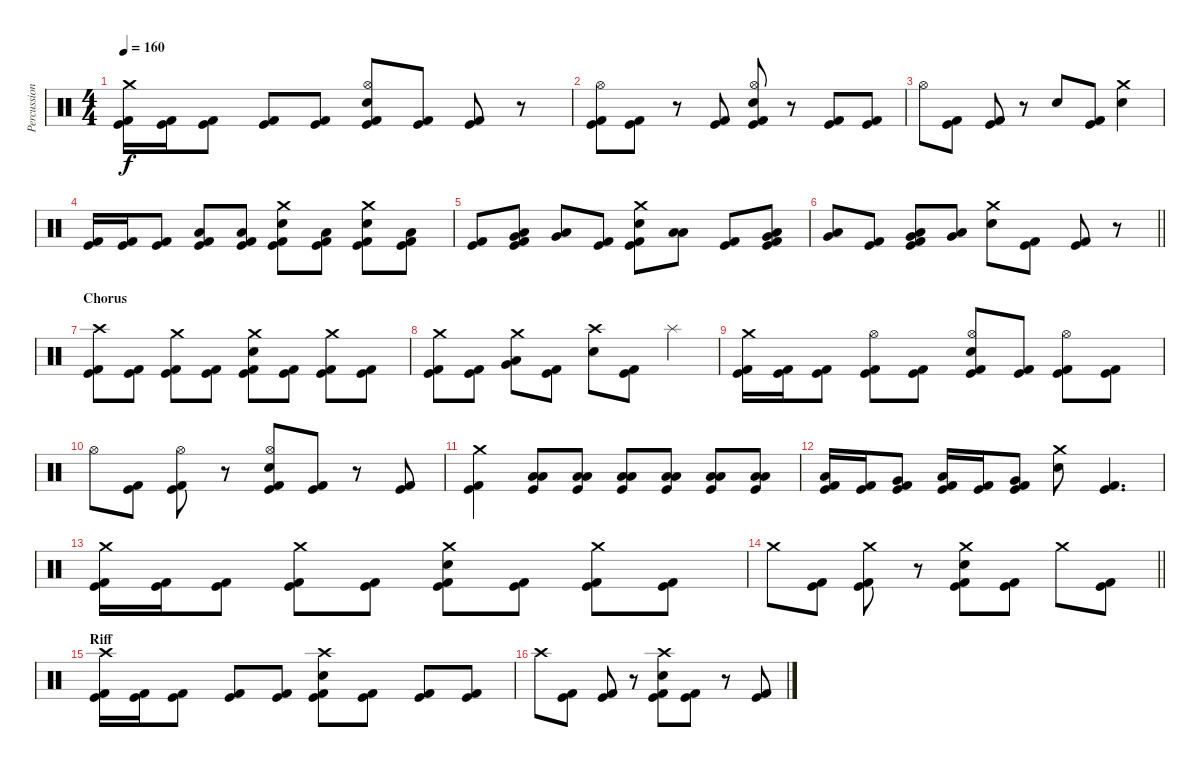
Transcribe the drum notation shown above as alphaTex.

\track ("Percussion" "Percussion") {instrument percussion}
\staff {score}
\articulation defaults
\ts (4 4)
\tempo 160
\clef neutral
\ks c
("Crash medium (hit)" "Kick (hit)" "Kick (hit) 2").16{dy f} ("Kick (hit)" "Kick (hit) 2").16 ("Kick (hit)" "Kick (hit) 2").8 ("Kick (hit)" "Kick (hit) 2").8 ("Kick (hit)" "Kick (hit) 2").8 ("Hi-Hat (open)" "Electric Snare (hit)" "Kick (hit)" "Kick (hit) 2").8 ("Kick (hit)" "Kick (hit) 2").8 ("Kick (hit)" "Kick (hit) 2").8 r.8 |
("Hi-Hat (open)" "Kick (hit)" "Kick (hit) 2").8 ("Kick (hit)" "Kick (hit) 2").8 r.8 ("Kick (hit)" "Kick (hit) 2").8 ("Hi-Hat (open)" "Electric Snare (hit)" "Kick (hit)" "Kick (hit) 2").8 r.8 ("Kick (hit)" "Kick (hit) 2").8 ("Kick (hit)" "Kick (hit) 2").8 |
"Hi-Hat (open)".8 ("Kick (hit)" "Kick (hit) 2").8 ("Kick (hit)" "Kick (hit) 2").8 r.8 "Electric Snare (hit)".8 ("Kick (hit)" "Kick (hit) 2").8 ("Crash medium (hit)" "Electric Snare (hit)").4 |
("Kick (hit)" "Kick (hit) 2").16 ("Kick (hit)" "Kick (hit) 2").16 ("Kick (hit)" "Kick (hit) 2").8 ("Low Floor Tom (hit)" "Kick (hit)" "Kick (hit) 2").8 ("Low Floor Tom (hit)" "Kick (hit)" "Kick (hit) 2").8 ("Crash medium (hit)" "Electric Snare (hit)" "Kick (hit)" "Kick (hit) 2").8 ("Low Floor Tom (hit)" "Kick (hit)" "Kick (hit) 2").8 ("Crash medium (hit)" "Electric Snare (hit)" "Kick (hit)" "Kick (hit) 2").8 ("Low Floor Tom (hit)" "Kick (hit)" "Kick (hit) 2").8 |
("Kick (hit)" "Kick (hit) 2").8 ("Very Low Tom (hit)" "Low Floor Tom (hit)" "Kick (hit)" "Kick (hit) 2").8 ("Very Low Tom (hit)" "Low Floor Tom (hit)").8 ("Kick (hit)" "Kick (hit) 2").8 ("Crash medium (hit)" "Electric Snare (hit)" "Kick (hit)" "Kick (hit) 2").8 ("Low Tom (hit)" "Low Floor Tom (hit)").8 ("Kick (hit)" "Kick (hit) 2").8 ("Very Low Tom (hit)" "Low Floor Tom (hit)" "Kick (hit)" "Kick (hit) 2").8 |
\barLineRight lightlight
("Very Low Tom (hit)" "Low Floor Tom (hit)").8 ("Kick (hit)" "Kick (hit) 2").8 ("Low Tom (hit)" "Very Low Tom (hit)" "Kick (hit)" "Kick (hit) 2").8 ("Low Tom (hit)" "Very Low Tom (hit)").8 ("Crash medium (hit)" "Electric Snare (hit)").8 ("Kick (hit)" "Kick (hit) 2").8 ("Kick (hit)" "Kick (hit) 2").8 r.8 |
\section ("" "Chorus")
("Crash high (hit)" "Kick (hit)" "Kick (hit) 2").8 ("Kick (hit)" "Kick (hit) 2").8 ("Crash medium (hit)" "Kick (hit)" "Kick (hit) 2").8 ("Kick (hit)" "Kick (hit) 2").8 ("Crash medium (hit)" "Electric Snare (hit)" "Kick (hit)" "Kick (hit) 2").8 ("Kick (hit)" "Kick (hit) 2").8 ("Crash medium (hit)" "Kick (hit)" "Kick (hit) 2").8 ("Kick (hit)" "Kick (hit) 2").8 |
("Crash medium (hit)" "Kick (hit)" "Kick (hit) 2").8 ("Kick (hit)" "Kick (hit) 2").8 ("Crash medium (hit)" "Low Tom (hit)" "Very Low Tom (hit)").8 ("Kick (hit)" "Kick (hit) 2").8 ("Crash high (hit)" "Electric Snare (hit)").8 ("Kick (hit)" "Kick (hit) 2").8 "Splash (hit)".4 |
("Crash medium (hit)" "Kick (hit)" "Kick (hit) 2").16 ("Kick (hit)" "Kick (hit) 2").16 ("Kick (hit)" "Kick (hit) 2").8 ("Hi-Hat (open)" "Kick (hit)" "Kick (hit) 2").8 ("Kick (hit)" "Kick (hit) 2").8 ("Hi-Hat (open)" "Electric Snare (hit)" "Kick (hit)" "Kick (hit) 2").8 ("Kick (hit)" "Kick (hit) 2").8 ("Hi-Hat (open)" "Kick (hit)" "Kick (hit) 2").8 ("Kick (hit)" "Kick (hit) 2").8 |
"Hi-Hat (open)".8 ("Kick (hit)" "Kick (hit) 2").8 ("Hi-Hat (open)" "Kick (hit)" "Kick (hit) 2").8 r.8 ("Hi-Hat (open)" "Electric Snare (hit)" "Kick (hit)" "Kick (hit) 2").8 ("Kick (hit)" "Kick (hit) 2").8 r.8 ("Kick (hit)" "Kick (hit) 2").8 |
("Crash medium (hit)" "Kick (hit)" "Kick (hit) 2").4 ("Low Tom (hit)" "Low Floor Tom (hit)" "Kick (hit)").8{volume 7} ("Low Tom (hit)" "Low Floor Tom (hit)" "Kick (hit)").8{volume 13} ("Low Tom (hit)" "Low Floor Tom (hit)" "Kick (hit)").8 ("Low Tom (hit)" "Low Floor Tom (hit)" "Kick (hit)").8 ("Low Tom (hit)" "Low Floor Tom (hit)" "Kick (hit)").8 ("Low Tom (hit)" "Low Floor Tom (hit)" "Kick (hit)").8 |
("Low Tom (hit)" "Kick (hit)" "Kick (hit) 2").16 ("Kick (hit)" "Kick (hit) 2").16 ("Very Low Tom (hit)" "Kick (hit)" "Kick (hit) 2").8 ("Low Tom (hit)" "Kick (hit)" "Kick (hit) 2").16 ("Kick (hit)" "Kick (hit) 2").16 ("Very Low Tom (hit)" "Kick (hit)" "Kick (hit) 2").8 ("Crash medium (hit)" "Electric Snare (hit)").8 ("Kick (hit)" "Kick (hit) 2").4{d} |
("Crash medium (hit)" "Kick (hit)" "Kick (hit) 2").16 ("Kick (hit)" "Kick (hit) 2").16 ("Kick (hit)" "Kick (hit) 2").8 ("Crash medium (hit)" "Kick (hit)" "Kick (hit) 2").8 ("Kick (hit)" "Kick (hit) 2").8 ("Crash medium (hit)" "Electric Snare (hit)" "Kick (hit)" "Kick (hit) 2").8 ("Kick (hit)" "Kick (hit) 2").8 ("Crash medium (hit)" "Kick (hit)" "Kick (hit) 2").8 ("Kick (hit)" "Kick (hit) 2").8 |
\barLineRight lightlight "Crash medium (hit)".8
("Kick (hit)" "Kick (hit) 2").8 ("Crash medium (hit)" "Kick (hit)" "Kick (hit) 2").8 r.8 ("Crash medium (hit)" "Electric Snare (hit)" "Kick (hit)" "Kick (hit) 2").8 ("Kick (hit)" "Kick (hit) 2").8 "Crash medium (hit)".8 ("Kick (hit)" "Kick (hit) 2").8 |
\section ("" "Riff")
("Crash high (hit)" "Kick (hit)" "Kick (hit) 2").16 ("Kick (hit)" "Kick (hit) 2").16 ("Kick (hit)" "Kick (hit) 2").8 ("Kick (hit)" "Kick (hit) 2").8 ("Kick (hit)" "Kick (hit) 2").8 ("Crash high (hit)" "Electric Snare (hit)" "Kick (hit)" "Kick (hit) 2").8 ("Kick (hit)" "Kick (hit) 2").8 ("Kick (hit)" "Kick (hit) 2").8 ("Kick (hit)" "Kick (hit) 2").8 |
"Crash high (hit)".8 ("Kick (hit)" "Kick (hit) 2").8 ("Kick (hit)" "Kick (hit) 2").8 r.8 ("Crash high (hit)" "Electric Snare (hit)" "Kick (hit)" "Kick (hit) 2").8 ("Kick (hit)" "Kick (hit) 2").8 r.8 ("Kick (hit)" "Kick (hit) 2").8
